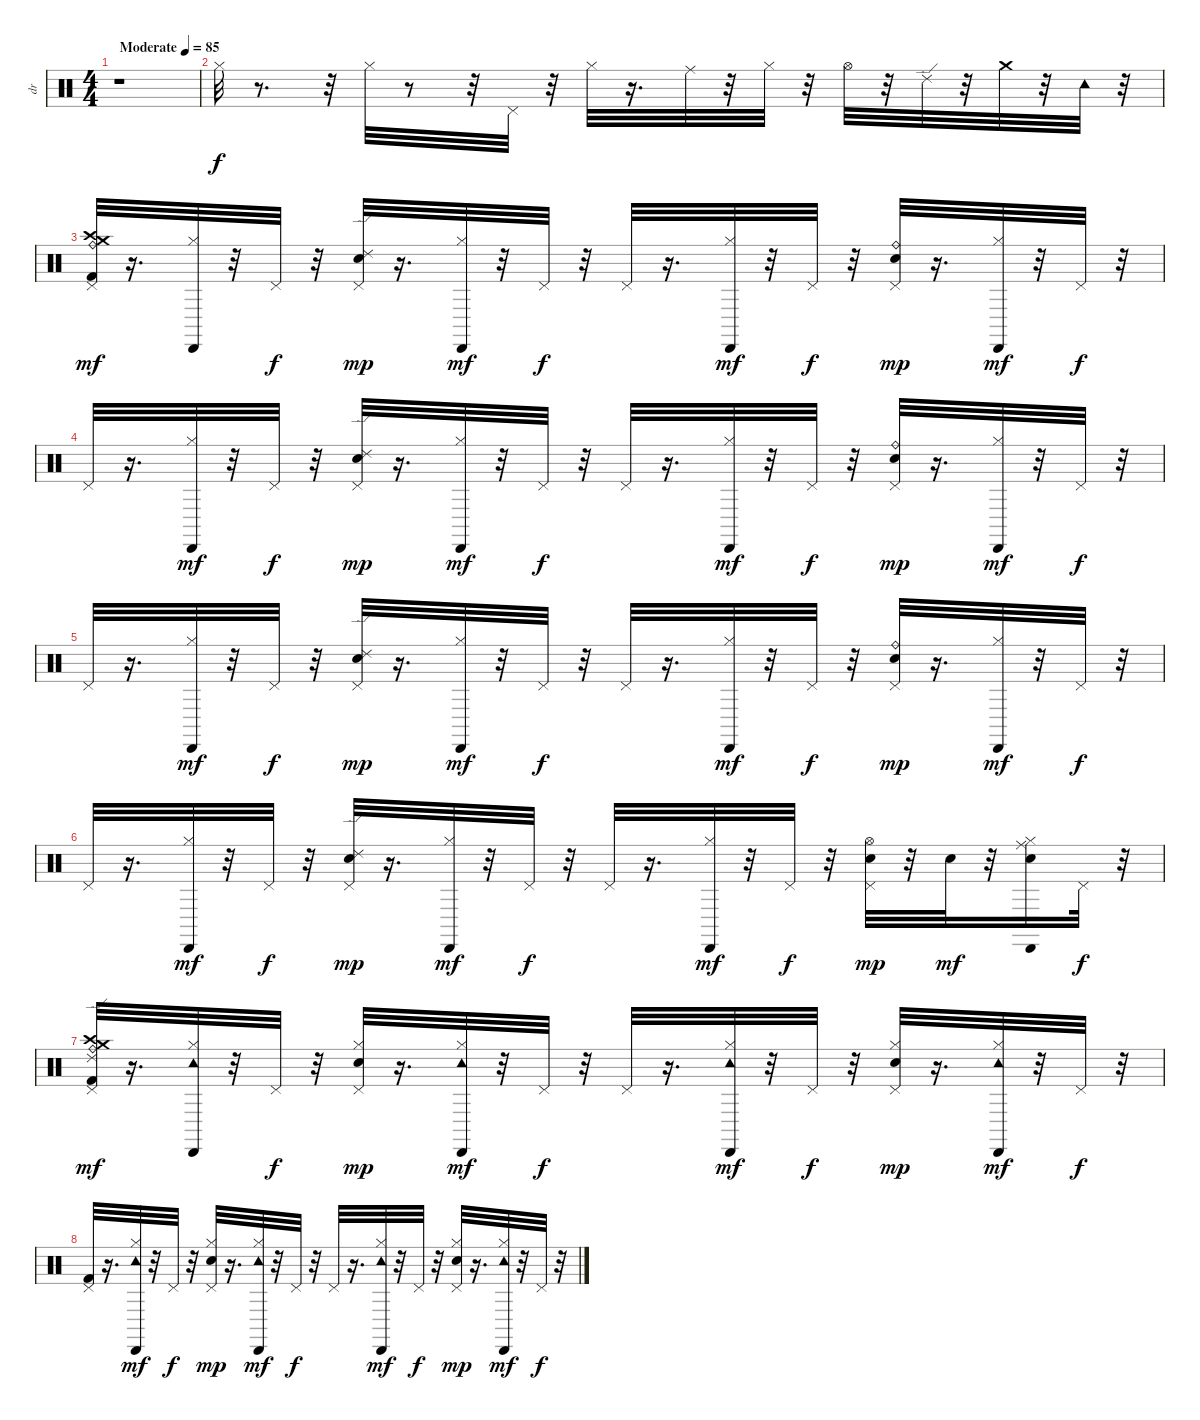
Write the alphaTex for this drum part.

\track ("dr" "dr") {instrument percussion}
\staff {score}
\articulation defaults
\ts (4 4)
\tempo (85 "Moderate")
\clef neutral
\ks c
r.1{dy f} |
"Hi-Hat (closed)".32{volume 12} r.8{d} r.32 "Hi-Hat (closed)".32 r.8 r.32 "Pedal Hi-Hat (hit)".32 r.32 "Hi-Hat (closed)".32 r.16{d} "Ride (middle)".32 r.32 "Hi-Hat (closed)".32 r.32 "Hi-Hat (open)".32 r.32 "Ride (edge) 2".32 r.32 "Crash medium (hit)".32 r.32 "Tambourine (hit)".32 r.32 |
("Pedal Hi-Hat (hit)" "Crash medium (hit)" "Ride (bell)" "Crash high (hit)" "Kick (hit) 2").32{dy mf} r.16{d} ("Hi-Hat (closed)" "Cabasa (hit)").32 r.32 "Pedal Hi-Hat (hit)".32{dy f} r.32 ("Electric Snare (hit)" "Pedal Hi-Hat (hit)" "Ride (edge) 2").32{dy mp} r.16{d} ("Hi-Hat (closed)" "Cabasa (hit)").32{dy mf} r.32 "Pedal Hi-Hat (hit)".32{dy f} r.32 "Pedal Hi-Hat (hit)".32 r.16{d} ("Hi-Hat (closed)" "Cabasa (hit)").32{dy mf} r.32 "Pedal Hi-Hat (hit)".32{dy f} r.32 ("Electric Snare (hit)" "Pedal Hi-Hat (hit)" "Ride (bell)").32{dy mp} r.16{d} ("Hi-Hat (closed)" "Cabasa (hit)").32{dy mf} r.32 "Pedal Hi-Hat (hit)".32{dy f} r.32 |
"Pedal Hi-Hat (hit)".32 r.16{d} ("Hi-Hat (closed)" "Cabasa (hit)").32{dy mf} r.32 "Pedal Hi-Hat (hit)".32{dy f} r.32 ("Electric Snare (hit)" "Pedal Hi-Hat (hit)" "Ride (edge) 2").32{dy mp} r.16{d} ("Hi-Hat (closed)" "Cabasa (hit)").32{dy mf} r.32 "Pedal Hi-Hat (hit)".32{dy f} r.32 "Pedal Hi-Hat (hit)".32 r.16{d} ("Hi-Hat (closed)" "Cabasa (hit)").32{dy mf} r.32 "Pedal Hi-Hat (hit)".32{dy f} r.32 ("Electric Snare (hit)" "Pedal Hi-Hat (hit)" "Ride (bell)").32{dy mp} r.16{d} ("Hi-Hat (closed)" "Cabasa (hit)").32{dy mf} r.32 "Pedal Hi-Hat (hit)".32{dy f} r.32 |
"Pedal Hi-Hat (hit)".32 r.16{d} ("Hi-Hat (closed)" "Cabasa (hit)").32{dy mf} r.32 "Pedal Hi-Hat (hit)".32{dy f} r.32 ("Electric Snare (hit)" "Pedal Hi-Hat (hit)" "Ride (edge) 2").32{dy mp} r.16{d} ("Hi-Hat (closed)" "Cabasa (hit)").32{dy mf} r.32 "Pedal Hi-Hat (hit)".32{dy f} r.32 "Pedal Hi-Hat (hit)".32 r.16{d} ("Hi-Hat (closed)" "Cabasa (hit)").32{dy mf} r.32 "Pedal Hi-Hat (hit)".32{dy f} r.32 ("Electric Snare (hit)" "Pedal Hi-Hat (hit)" "Ride (bell)").32{dy mp} r.16{d} ("Hi-Hat (closed)" "Cabasa (hit)").32{dy mf} r.32 "Pedal Hi-Hat (hit)".32{dy f} r.32 |
"Pedal Hi-Hat (hit)".32 r.16{d} ("Hi-Hat (closed)" "Cabasa (hit)").32{dy mf} r.32 "Pedal Hi-Hat (hit)".32{dy f} r.32 ("Electric Snare (hit)" "Pedal Hi-Hat (hit)" "Ride (edge) 2").32{dy mp} r.16{d} ("Hi-Hat (closed)" "Cabasa (hit)").32{dy mf} r.32 "Pedal Hi-Hat (hit)".32{dy f} r.32 "Pedal Hi-Hat (hit)".32 r.16{d} ("Hi-Hat (closed)" "Cabasa (hit)").32{dy mf} r.32 "Pedal Hi-Hat (hit)".32{dy f} r.32 ("Electric Snare (hit)" "Pedal Hi-Hat (hit)" "Hi-Hat (open)").32{dy mp} r.32 "Snare (hit) 2".32{dy mf} r.32 ("Snare (hit) 2" "Hi-Hat (closed)" "Cabasa (hit)" "Ride (middle)").16 "Pedal Hi-Hat (hit)".32{dy f} r.32 |
("Kick (hit) 2" "Crash medium (hit)" "Ride (bell)" "Crash high (hit)" "Ride (edge) 2" "Pedal Hi-Hat (hit)").32{dy mf} r.16{d} ("Hi-Hat (closed)" "Cabasa (hit)" "Tambourine (hit)").32 r.32 "Pedal Hi-Hat (hit)".32{dy f} r.32 ("Pedal Hi-Hat (hit)" "Electric Snare (hit)" "Hi-Hat (closed)").32{dy mp} r.16{d} ("Hi-Hat (closed)" "Cabasa (hit)" "Tambourine (hit)").32{dy mf} r.32 "Pedal Hi-Hat (hit)".32{dy f} r.32 "Pedal Hi-Hat (hit)".32 r.16{d} ("Hi-Hat (closed)" "Cabasa (hit)" "Tambourine (hit)").32{dy mf} r.32 "Pedal Hi-Hat (hit)".32{dy f} r.32 ("Electric Snare (hit)" "Pedal Hi-Hat (hit)" "Hi-Hat (closed)").32{dy mp} r.16{d} ("Hi-Hat (closed)" "Cabasa (hit)" "Tambourine (hit)").32{dy mf} r.32 "Pedal Hi-Hat (hit)".32{dy f} r.32 |
("Pedal Hi-Hat (hit)" "Kick (hit) 2").32 r.16{d} ("Hi-Hat (closed)" "Cabasa (hit)" "Tambourine (hit)").32{dy mf} r.32 "Pedal Hi-Hat (hit)".32{dy f} r.32 ("Electric Snare (hit)" "Pedal Hi-Hat (hit)" "Hi-Hat (closed)").32{dy mp} r.16{d} ("Hi-Hat (closed)" "Cabasa (hit)" "Tambourine (hit)").32{dy mf} r.32 "Pedal Hi-Hat (hit)".32{dy f} r.32 "Pedal Hi-Hat (hit)".32 r.16{d} ("Hi-Hat (closed)" "Cabasa (hit)" "Tambourine (hit)").32{dy mf} r.32 "Pedal Hi-Hat (hit)".32{dy f} r.32 ("Electric Snare (hit)" "Pedal Hi-Hat (hit)" "Hi-Hat (closed)").32{dy mp} r.16{d} ("Hi-Hat (closed)" "Cabasa (hit)" "Tambourine (hit)").32{dy mf} r.32 "Pedal Hi-Hat (hit)".32{dy f} r.32
